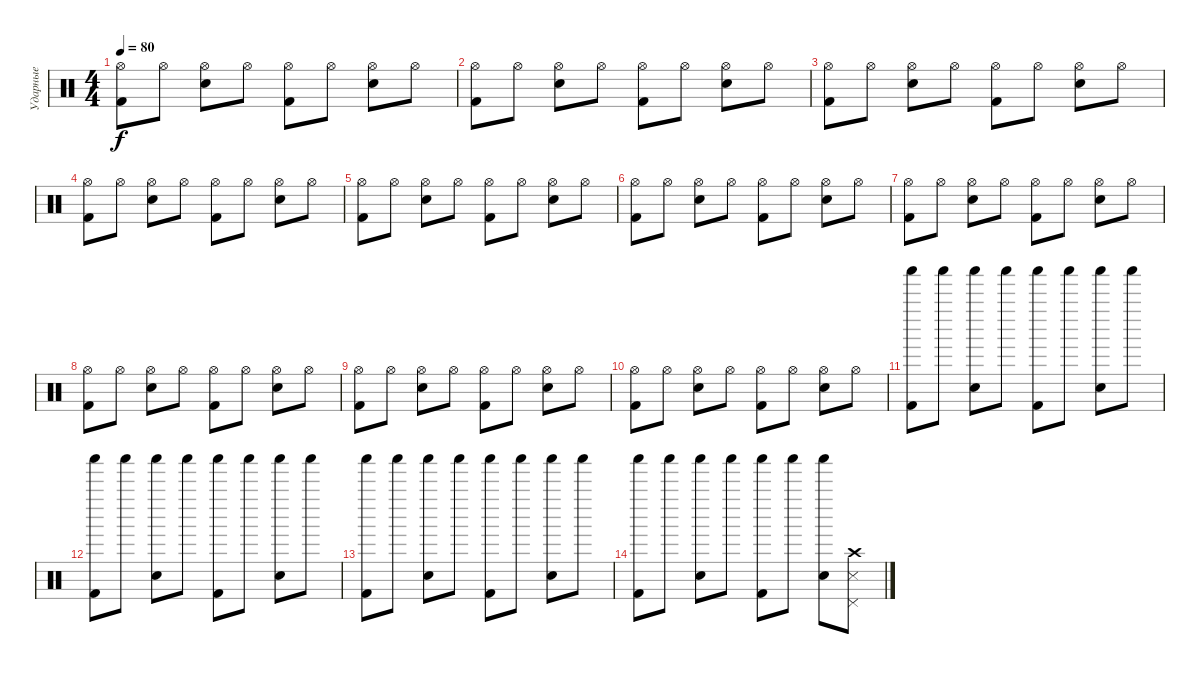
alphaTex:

\track ("Ударные" "Ударные") {instrument percussion}
\staff {score}
\articulation defaults
\ts (4 4)
\tempo 80
\clef neutral
\ks c
("Hi-Hat (open)" "Kick (hit) 2").8{dy f} "Hi-Hat (open)".8 ("Hi-Hat (open)" "Snare (hit) 2").8 "Hi-Hat (open)".8 ("Hi-Hat (open)" "Kick (hit) 2").8 "Hi-Hat (open)".8 ("Hi-Hat (open)" "Snare (hit) 2").8 "Hi-Hat (open)".8 |
("Hi-Hat (open)" "Kick (hit) 2").8 "Hi-Hat (open)".8 ("Hi-Hat (open)" "Snare (hit) 2").8 "Hi-Hat (open)".8 ("Hi-Hat (open)" "Kick (hit) 2").8 "Hi-Hat (open)".8 ("Hi-Hat (open)" "Snare (hit) 2").8 "Hi-Hat (open)".8 |
("Hi-Hat (open)" "Kick (hit) 2").8 "Hi-Hat (open)".8 ("Hi-Hat (open)" "Snare (hit) 2").8 "Hi-Hat (open)".8 ("Hi-Hat (open)" "Kick (hit) 2").8 "Hi-Hat (open)".8 ("Hi-Hat (open)" "Snare (hit) 2").8 "Hi-Hat (open)".8 |
("Hi-Hat (open)" "Kick (hit) 2").8 "Hi-Hat (open)".8 ("Hi-Hat (open)" "Snare (hit) 2").8 "Hi-Hat (open)".8 ("Hi-Hat (open)" "Kick (hit) 2").8 "Hi-Hat (open)".8 ("Hi-Hat (open)" "Snare (hit) 2").8 "Hi-Hat (open)".8 |
("Hi-Hat (open)" "Kick (hit) 2").8 "Hi-Hat (open)".8 ("Hi-Hat (open)" "Snare (hit) 2").8 "Hi-Hat (open)".8 ("Hi-Hat (open)" "Kick (hit) 2").8 "Hi-Hat (open)".8 ("Hi-Hat (open)" "Snare (hit) 2").8 "Hi-Hat (open)".8 |
("Hi-Hat (open)" "Kick (hit) 2").8 "Hi-Hat (open)".8 ("Hi-Hat (open)" "Snare (hit) 2").8 "Hi-Hat (open)".8 ("Hi-Hat (open)" "Kick (hit) 2").8 "Hi-Hat (open)".8 ("Hi-Hat (open)" "Snare (hit) 2").8 "Hi-Hat (open)".8 |
("Hi-Hat (open)" "Kick (hit) 2").8 "Hi-Hat (open)".8 ("Hi-Hat (open)" "Snare (hit) 2").8 "Hi-Hat (open)".8 ("Hi-Hat (open)" "Kick (hit) 2").8 "Hi-Hat (open)".8 ("Hi-Hat (open)" "Snare (hit) 2").8 "Hi-Hat (open)".8 |
("Hi-Hat (open)" "Kick (hit) 2").8 "Hi-Hat (open)".8 ("Hi-Hat (open)" "Snare (hit) 2").8 "Hi-Hat (open)".8 ("Hi-Hat (open)" "Kick (hit) 2").8 "Hi-Hat (open)".8 ("Hi-Hat (open)" "Snare (hit) 2").8 "Hi-Hat (open)".8 |
("Hi-Hat (open)" "Kick (hit) 2").8 "Hi-Hat (open)".8 ("Hi-Hat (open)" "Snare (hit) 2").8 "Hi-Hat (open)".8 ("Hi-Hat (open)" "Kick (hit) 2").8 "Hi-Hat (open)".8 ("Hi-Hat (open)" "Snare (hit) 2").8 "Hi-Hat (open)".8 |
("Hi-Hat (open)" "Kick (hit) 2").8 "Hi-Hat (open)".8 ("Hi-Hat (open)" "Snare (hit) 2").8 "Hi-Hat (open)".8 ("Hi-Hat (open)" "Kick (hit) 2").8 "Hi-Hat (open)".8 ("Hi-Hat (open)" "Snare (hit) 2").8 "Hi-Hat (open)".8 |
("Shaker (hit)" "Kick (hit) 2").8 "Shaker (hit)".8 ("Shaker (hit)" "Snare (hit) 2").8 "Shaker (hit)".8 ("Shaker (hit)" "Kick (hit) 2").8 "Shaker (hit)".8 ("Shaker (hit)" "Snare (hit) 2").8 "Shaker (hit)".8 |
("Shaker (hit)" "Kick (hit) 2").8 "Shaker (hit)".8 ("Shaker (hit)" "Snare (hit) 2").8 "Shaker (hit)".8 ("Shaker (hit)" "Kick (hit) 2").8 "Shaker (hit)".8 ("Shaker (hit)" "Snare (hit) 2").8 "Shaker (hit)".8 |
("Shaker (hit)" "Kick (hit) 2").8 "Shaker (hit)".8 ("Shaker (hit)" "Snare (hit) 2").8 "Shaker (hit)".8 ("Shaker (hit)" "Kick (hit) 2").8 "Shaker (hit)".8 ("Shaker (hit)" "Snare (hit) 2").8 "Shaker (hit)".8 |
("Shaker (hit)" "Kick (hit) 2").8 "Shaker (hit)".8 ("Shaker (hit)" "Snare (hit) 2").8 "Shaker (hit)".8 ("Shaker (hit)" "Kick (hit) 2").8 "Shaker (hit)".8 ("Shaker (hit)" "Snare (hit) 2").8 ("Pedal Hi-Hat (hit)" "Metronome (hit)" "Crash high (hit)").8
